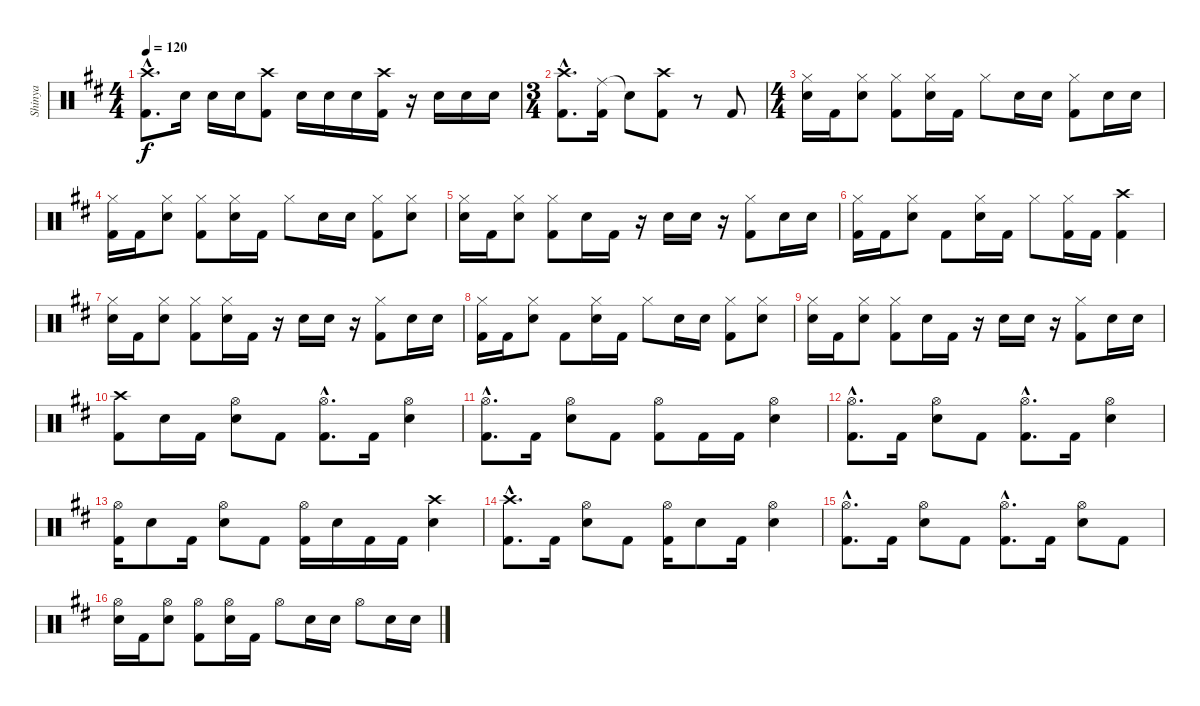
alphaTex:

\track ("Shinya" "Shinya") {instrument percussion}
\staff {score}
\articulation defaults
\ts (4 4)
\tempo 120
\clef neutral
\ks bminor
("Crash high (hit)"{hac} "Kick (hit) 2"{hac}).8{d dy f} "Snare (hit) 2".16 "Snare (hit) 2".16 "Snare (hit) 2".16 ("Crash high (hit)" "Kick (hit) 2").8 "Snare (hit) 2".16 "Snare (hit) 2".16 "Snare (hit) 2".16 ("Crash high (hit)" "Kick (hit) 2").16 r.16 "Snare (hit) 2".16 "Snare (hit) 2".16 "Snare (hit) 2".16 |
\ts (3 4)
("Crash high (hit)"{hac} "Kick (hit) 2"{hac}).8{d} ("Ride (middle)" "Kick (hit) 2").16 "Snare (hit)"{t}.8 ("Crash high (hit)" "Kick (hit) 2").8 r.8 "Kick (hit) 2".8 |
\ts (4 4)
("Hi-Hat (closed)" "Snare (hit) 2").16 "Kick (hit) 2".16 ("Hi-Hat (closed)" "Snare (hit) 2").8 ("Hi-Hat (closed)" "Kick (hit) 2").8 ("Hi-Hat (closed)" "Snare (hit) 2").16 "Kick (hit) 2".16 "Hi-Hat (closed)".8 "Snare (hit) 2".16 "Snare (hit) 2".16 ("Hi-Hat (closed)" "Kick (hit) 2").8 "Snare (hit) 2".16 "Snare (hit) 2".16 |
("Hi-Hat (closed)" "Kick (hit) 2").16 "Kick (hit) 2".16 ("Snare (hit) 2" "Hi-Hat (closed)").8 ("Hi-Hat (closed)" "Kick (hit) 2").8 ("Hi-Hat (closed)" "Snare (hit) 2").16 "Kick (hit) 2".16 "Hi-Hat (closed)".8 "Snare (hit) 2".16 "Snare (hit) 2".16 ("Hi-Hat (closed)" "Kick (hit) 2").8 ("Hi-Hat (closed)" "Snare (hit) 2").8 |
("Hi-Hat (closed)" "Snare (hit) 2").16 "Kick (hit) 2".16 ("Hi-Hat (closed)" "Snare (hit) 2").8 ("Hi-Hat (closed)" "Kick (hit) 2").8 "Snare (hit) 2".16 "Kick (hit) 2".16 r.16 "Snare (hit) 2".16 "Snare (hit) 2".16 r.16 ("Hi-Hat (closed)" "Kick (hit) 2").8 "Snare (hit) 2".16 "Snare (hit) 2".16 |
("Hi-Hat (closed)" "Kick (hit) 2").16 "Kick (hit) 2".16 ("Hi-Hat (closed)" "Snare (hit) 2").8 "Kick (hit) 2".8 ("Hi-Hat (closed)" "Snare (hit) 2").16 "Kick (hit) 2".16 "Hi-Hat (closed)".8 ("Hi-Hat (closed)" "Kick (hit) 2").16 "Kick (hit) 2".16 ("Crash high (hit)" "Kick (hit) 2").4 |
("Hi-Hat (closed)" "Snare (hit) 2").16 "Kick (hit) 2".16 ("Hi-Hat (closed)" "Snare (hit) 2").8 ("Hi-Hat (closed)" "Kick (hit) 2").8 ("Hi-Hat (closed)" "Snare (hit) 2").16 "Kick (hit) 2".16 r.16 "Snare (hit) 2".16 "Snare (hit) 2".16 r.16 ("Hi-Hat (closed)" "Kick (hit) 2").8 "Snare (hit) 2".16 "Snare (hit) 2".16 |
("Hi-Hat (closed)" "Kick (hit) 2").16 "Kick (hit) 2".16 ("Snare (hit) 2" "Hi-Hat (closed)").8 "Kick (hit) 2".8 ("Hi-Hat (closed)" "Snare (hit) 2").16 "Kick (hit) 2".16 "Hi-Hat (closed)".8 "Snare (hit) 2".16 "Snare (hit) 2".16 ("Hi-Hat (closed)" "Kick (hit) 2").8 ("Hi-Hat (closed)" "Snare (hit) 2").8 |
("Hi-Hat (closed)" "Snare (hit) 2").16 "Kick (hit) 2".16 ("Hi-Hat (closed)" "Snare (hit) 2").8 ("Hi-Hat (closed)" "Kick (hit) 2").8 "Snare (hit) 2".16 "Kick (hit) 2".16 r.16 "Snare (hit) 2".16 "Snare (hit) 2".16 r.16 ("Hi-Hat (closed)" "Kick (hit) 2").8 "Snare (hit) 2".16 "Snare (hit) 2".16 |
("Crash high (hit)" "Kick (hit) 2").8 "Snare (hit) 2".16 "Kick (hit) 2".16 ("Hi-Hat (open)" "Snare (hit) 2").8 "Kick (hit) 2".8 ("Hi-Hat (open)"{hac} "Kick (hit) 2"{hac}).8{d} "Kick (hit) 2".16 ("Snare (hit) 2" "Hi-Hat (open)").4 |
("Hi-Hat (open)"{hac} "Kick (hit) 2"{hac}).8{d} "Kick (hit) 2".16 ("Hi-Hat (open)" "Snare (hit) 2").8 "Kick (hit) 2".8 ("Hi-Hat (open)" "Kick (hit) 2").8 "Kick (hit) 2".16 "Kick (hit) 2".16 ("Hi-Hat (open)" "Snare (hit) 2").4 |
("Hi-Hat (open)"{hac} "Kick (hit) 2"{hac}).8{d} "Kick (hit) 2".16 ("Hi-Hat (open)" "Snare (hit) 2").8 "Kick (hit) 2".8 ("Hi-Hat (open)"{hac} "Kick (hit) 2"{hac}).8{d} "Kick (hit) 2".16 ("Hi-Hat (open)" "Snare (hit) 2").4 |
("Hi-Hat (open)" "Kick (hit) 2").16 "Snare (hit) 2".8 "Kick (hit) 2".16 ("Hi-Hat (open)" "Snare (hit) 2").8 "Kick (hit) 2".8 ("Hi-Hat (open)" "Kick (hit) 2").16 "Snare (hit) 2".16 "Kick (hit) 2".16 "Kick (hit) 2".16 ("Crash high (hit)" "Snare (hit) 2").4 |
("Crash high (hit)"{hac} "Kick (hit) 2"{hac}).8{d} "Kick (hit) 2".16 ("Hi-Hat (open)" "Snare (hit) 2").8 "Kick (hit) 2".8 ("Hi-Hat (open)" "Kick (hit) 2").16 "Snare (hit) 2".8 "Kick (hit) 2".16 ("Hi-Hat (open)" "Snare (hit) 2").4 |
("Hi-Hat (open)"{hac} "Kick (hit) 2"{hac}).8{d} "Kick (hit) 2".16 ("Hi-Hat (open)" "Snare (hit) 2").8 "Kick (hit) 2".8 ("Hi-Hat (open)"{hac} "Kick (hit) 2"{hac}).8{d} "Kick (hit) 2".16 ("Hi-Hat (open)" "Snare (hit) 2").8 "Kick (hit) 2".8 |
("Hi-Hat (open)" "Snare (hit) 2").16 "Kick (hit) 2".16 ("Hi-Hat (open)" "Snare (hit) 2").8 ("Hi-Hat (open)" "Kick (hit) 2").8 ("Hi-Hat (open)" "Snare (hit) 2").16 "Kick (hit) 2".16 "Hi-Hat (open)".8 "Snare (hit) 2".16 "Snare (hit) 2".16 "Hi-Hat (open)".8 "Snare (hit) 2".16 "Snare (hit) 2".16
